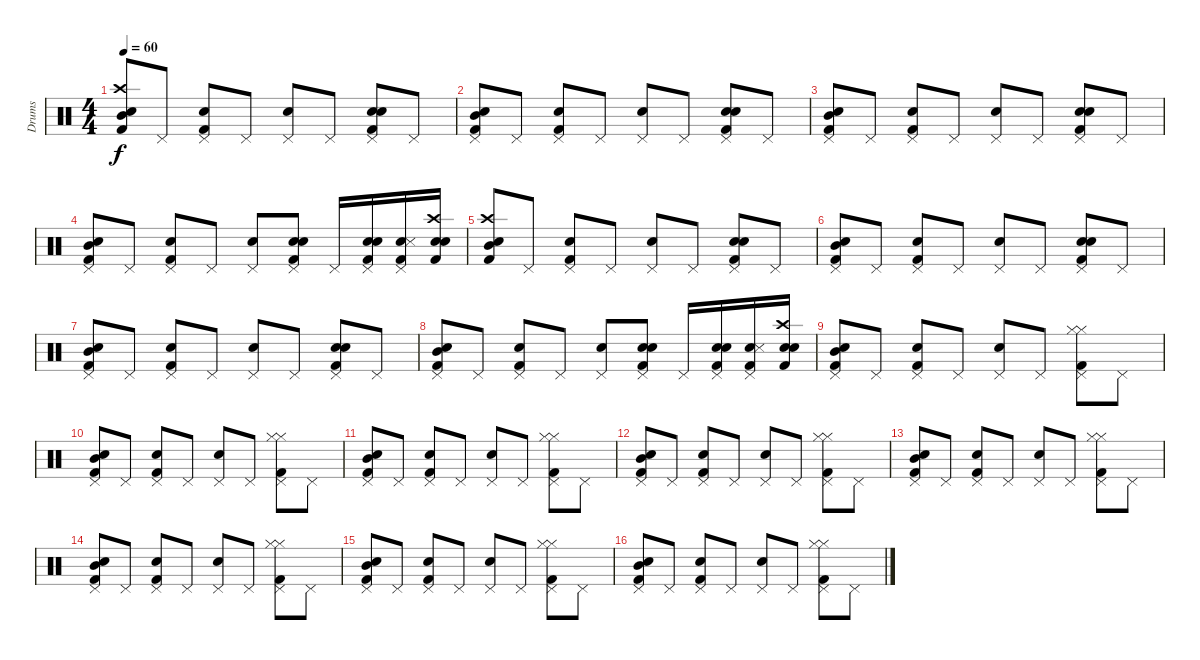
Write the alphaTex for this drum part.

\track ("Drums" "Drums") {instrument percussion}
\staff {score}
\articulation defaults
\ts (4 4)
\tempo 60
\clef neutral
\ks c
("Kick (hit) 2" "Snare (hit) 2" "Crash high (hit)" "Mid Tom (hit)").8{dy f} "Pedal Hi-Hat (hit)".8 ("Pedal Hi-Hat (hit)" "Electric Snare (hit)" "Kick (hit) 2").8 "Pedal Hi-Hat (hit)".8 ("Pedal Hi-Hat (hit)" "Snare (hit) 2").8 "Pedal Hi-Hat (hit)".8 ("Pedal Hi-Hat (hit)" "Electric Snare (hit)" "Kick (hit) 2" "Snare (hit) 2").8 "Pedal Hi-Hat (hit)".8 |
("Kick (hit) 2" "Snare (hit) 2" "Pedal Hi-Hat (hit)" "Mid Tom (hit)").8 "Pedal Hi-Hat (hit)".8 ("Pedal Hi-Hat (hit)" "Electric Snare (hit)" "Kick (hit) 2").8 "Pedal Hi-Hat (hit)".8 ("Pedal Hi-Hat (hit)" "Snare (hit) 2").8 "Pedal Hi-Hat (hit)".8 ("Pedal Hi-Hat (hit)" "Electric Snare (hit)" "Kick (hit) 2" "Snare (hit) 2").8 "Pedal Hi-Hat (hit)".8 |
("Kick (hit) 2" "Snare (hit) 2" "Pedal Hi-Hat (hit)" "Mid Tom (hit)").8 "Pedal Hi-Hat (hit)".8 ("Pedal Hi-Hat (hit)" "Electric Snare (hit)" "Kick (hit) 2").8 "Pedal Hi-Hat (hit)".8 ("Pedal Hi-Hat (hit)" "Snare (hit) 2").8 "Pedal Hi-Hat (hit)".8 ("Pedal Hi-Hat (hit)" "Electric Snare (hit)" "Kick (hit) 2" "Snare (hit) 2").8 "Pedal Hi-Hat (hit)".8 |
("Kick (hit) 2" "Snare (hit) 2" "Pedal Hi-Hat (hit)" "Mid Tom (hit)").8 "Pedal Hi-Hat (hit)".8 ("Pedal Hi-Hat (hit)" "Electric Snare (hit)" "Kick (hit) 2").8 "Pedal Hi-Hat (hit)".8 ("Pedal Hi-Hat (hit)" "Snare (hit) 2").8 ("Pedal Hi-Hat (hit)" "Electric Snare (hit)" "Kick (hit) 2" "Snare (hit) 2").8 "Pedal Hi-Hat (hit)".16 ("Pedal Hi-Hat (hit)" "Electric Snare (hit)" "Kick (hit) 2" "Snare (hit) 2").16 ("Pedal Hi-Hat (hit)" "Electric Snare (hit)" "Kick (hit) 2" "Snare (side stick) 3").16 ("Crash high (hit)" "Electric Snare (hit)" "Kick (hit) 2" "Snare (hit) 2").16 |
("Kick (hit) 2" "Snare (hit) 2" "Crash high (hit)" "Mid Tom (hit)").8 "Pedal Hi-Hat (hit)".8 ("Pedal Hi-Hat (hit)" "Electric Snare (hit)" "Kick (hit) 2").8 "Pedal Hi-Hat (hit)".8 ("Pedal Hi-Hat (hit)" "Snare (hit) 2").8 "Pedal Hi-Hat (hit)".8 ("Pedal Hi-Hat (hit)" "Electric Snare (hit)" "Kick (hit) 2" "Snare (hit) 2").8 "Pedal Hi-Hat (hit)".8 |
("Kick (hit) 2" "Snare (hit) 2" "Pedal Hi-Hat (hit)" "Mid Tom (hit)").8 "Pedal Hi-Hat (hit)".8 ("Pedal Hi-Hat (hit)" "Electric Snare (hit)" "Kick (hit) 2").8 "Pedal Hi-Hat (hit)".8 ("Pedal Hi-Hat (hit)" "Snare (hit) 2").8 "Pedal Hi-Hat (hit)".8 ("Pedal Hi-Hat (hit)" "Electric Snare (hit)" "Kick (hit) 2" "Snare (hit) 2").8 "Pedal Hi-Hat (hit)".8 |
("Kick (hit) 2" "Snare (hit) 2" "Pedal Hi-Hat (hit)" "Mid Tom (hit)").8 "Pedal Hi-Hat (hit)".8 ("Pedal Hi-Hat (hit)" "Electric Snare (hit)" "Kick (hit) 2").8 "Pedal Hi-Hat (hit)".8 ("Pedal Hi-Hat (hit)" "Snare (hit) 2").8 "Pedal Hi-Hat (hit)".8 ("Pedal Hi-Hat (hit)" "Electric Snare (hit)" "Kick (hit) 2" "Snare (hit) 2").8 "Pedal Hi-Hat (hit)".8 |
("Kick (hit) 2" "Snare (hit) 2" "Pedal Hi-Hat (hit)" "Mid Tom (hit)").8 "Pedal Hi-Hat (hit)".8 ("Pedal Hi-Hat (hit)" "Electric Snare (hit)" "Kick (hit) 2").8 "Pedal Hi-Hat (hit)".8 ("Pedal Hi-Hat (hit)" "Snare (hit) 2").8 ("Pedal Hi-Hat (hit)" "Electric Snare (hit)" "Kick (hit) 2" "Snare (hit) 2").8 "Pedal Hi-Hat (hit)".16 ("Pedal Hi-Hat (hit)" "Electric Snare (hit)" "Kick (hit) 2" "Snare (hit) 2").16 ("Pedal Hi-Hat (hit)" "Electric Snare (hit)" "Kick (hit) 2" "Snare (side stick) 3").16 ("Crash high (hit)" "Electric Snare (hit)" "Kick (hit) 2" "Snare (hit) 2").16 |
("Kick (hit) 2" "Snare (hit) 2" "Pedal Hi-Hat (hit)" "Mid Tom (hit)").8 "Pedal Hi-Hat (hit)".8 ("Pedal Hi-Hat (hit)" "Electric Snare (hit)" "Kick (hit) 2").8 "Pedal Hi-Hat (hit)".8 ("Pedal Hi-Hat (hit)" "Snare (hit) 2").8 "Pedal Hi-Hat (hit)".8 ("Pedal Hi-Hat (hit)" "Kick (hit) 2" "Hi-Hat (closed)" "Hi-Hat (closed)").8 "Pedal Hi-Hat (hit)".8 |
("Kick (hit) 2" "Snare (hit) 2" "Pedal Hi-Hat (hit)" "Mid Tom (hit)").8 "Pedal Hi-Hat (hit)".8 ("Pedal Hi-Hat (hit)" "Electric Snare (hit)" "Kick (hit) 2").8 "Pedal Hi-Hat (hit)".8 ("Pedal Hi-Hat (hit)" "Snare (hit) 2").8 "Pedal Hi-Hat (hit)".8 ("Pedal Hi-Hat (hit)" "Kick (hit) 2" "Hi-Hat (closed)" "Hi-Hat (closed)").8 "Pedal Hi-Hat (hit)".8 |
("Kick (hit) 2" "Snare (hit) 2" "Pedal Hi-Hat (hit)" "Mid Tom (hit)").8 "Pedal Hi-Hat (hit)".8 ("Pedal Hi-Hat (hit)" "Electric Snare (hit)" "Kick (hit) 2").8 "Pedal Hi-Hat (hit)".8 ("Pedal Hi-Hat (hit)" "Snare (hit) 2").8 "Pedal Hi-Hat (hit)".8 ("Pedal Hi-Hat (hit)" "Kick (hit) 2" "Hi-Hat (closed)" "Hi-Hat (closed)").8 "Pedal Hi-Hat (hit)".8 |
("Kick (hit) 2" "Snare (hit) 2" "Pedal Hi-Hat (hit)" "Mid Tom (hit)").8 "Pedal Hi-Hat (hit)".8 ("Pedal Hi-Hat (hit)" "Electric Snare (hit)" "Kick (hit) 2").8 "Pedal Hi-Hat (hit)".8 ("Pedal Hi-Hat (hit)" "Snare (hit) 2").8 "Pedal Hi-Hat (hit)".8 ("Pedal Hi-Hat (hit)" "Kick (hit) 2" "Hi-Hat (closed)" "Hi-Hat (closed)").8 "Pedal Hi-Hat (hit)".8 |
("Kick (hit) 2" "Snare (hit) 2" "Pedal Hi-Hat (hit)" "Mid Tom (hit)").8 "Pedal Hi-Hat (hit)".8 ("Pedal Hi-Hat (hit)" "Electric Snare (hit)" "Kick (hit) 2").8 "Pedal Hi-Hat (hit)".8 ("Pedal Hi-Hat (hit)" "Snare (hit) 2").8 "Pedal Hi-Hat (hit)".8 ("Pedal Hi-Hat (hit)" "Kick (hit) 2" "Hi-Hat (closed)" "Hi-Hat (closed)").8 "Pedal Hi-Hat (hit)".8 |
("Kick (hit) 2" "Snare (hit) 2" "Pedal Hi-Hat (hit)" "Mid Tom (hit)").8 "Pedal Hi-Hat (hit)".8 ("Pedal Hi-Hat (hit)" "Electric Snare (hit)" "Kick (hit) 2").8 "Pedal Hi-Hat (hit)".8 ("Pedal Hi-Hat (hit)" "Snare (hit) 2").8 "Pedal Hi-Hat (hit)".8 ("Pedal Hi-Hat (hit)" "Kick (hit) 2" "Hi-Hat (closed)" "Hi-Hat (closed)").8 "Pedal Hi-Hat (hit)".8 |
("Kick (hit) 2" "Snare (hit) 2" "Pedal Hi-Hat (hit)" "Mid Tom (hit)").8 "Pedal Hi-Hat (hit)".8 ("Pedal Hi-Hat (hit)" "Electric Snare (hit)" "Kick (hit) 2").8 "Pedal Hi-Hat (hit)".8 ("Pedal Hi-Hat (hit)" "Snare (hit) 2").8 "Pedal Hi-Hat (hit)".8 ("Pedal Hi-Hat (hit)" "Kick (hit) 2" "Hi-Hat (closed)" "Hi-Hat (closed)").8 "Pedal Hi-Hat (hit)".8 |
("Kick (hit) 2" "Snare (hit) 2" "Pedal Hi-Hat (hit)" "Mid Tom (hit)").8 "Pedal Hi-Hat (hit)".8 ("Pedal Hi-Hat (hit)" "Electric Snare (hit)" "Kick (hit) 2").8 "Pedal Hi-Hat (hit)".8 ("Pedal Hi-Hat (hit)" "Snare (hit) 2").8 "Pedal Hi-Hat (hit)".8 ("Pedal Hi-Hat (hit)" "Kick (hit) 2" "Hi-Hat (closed)" "Hi-Hat (closed)").8 "Pedal Hi-Hat (hit)".8
